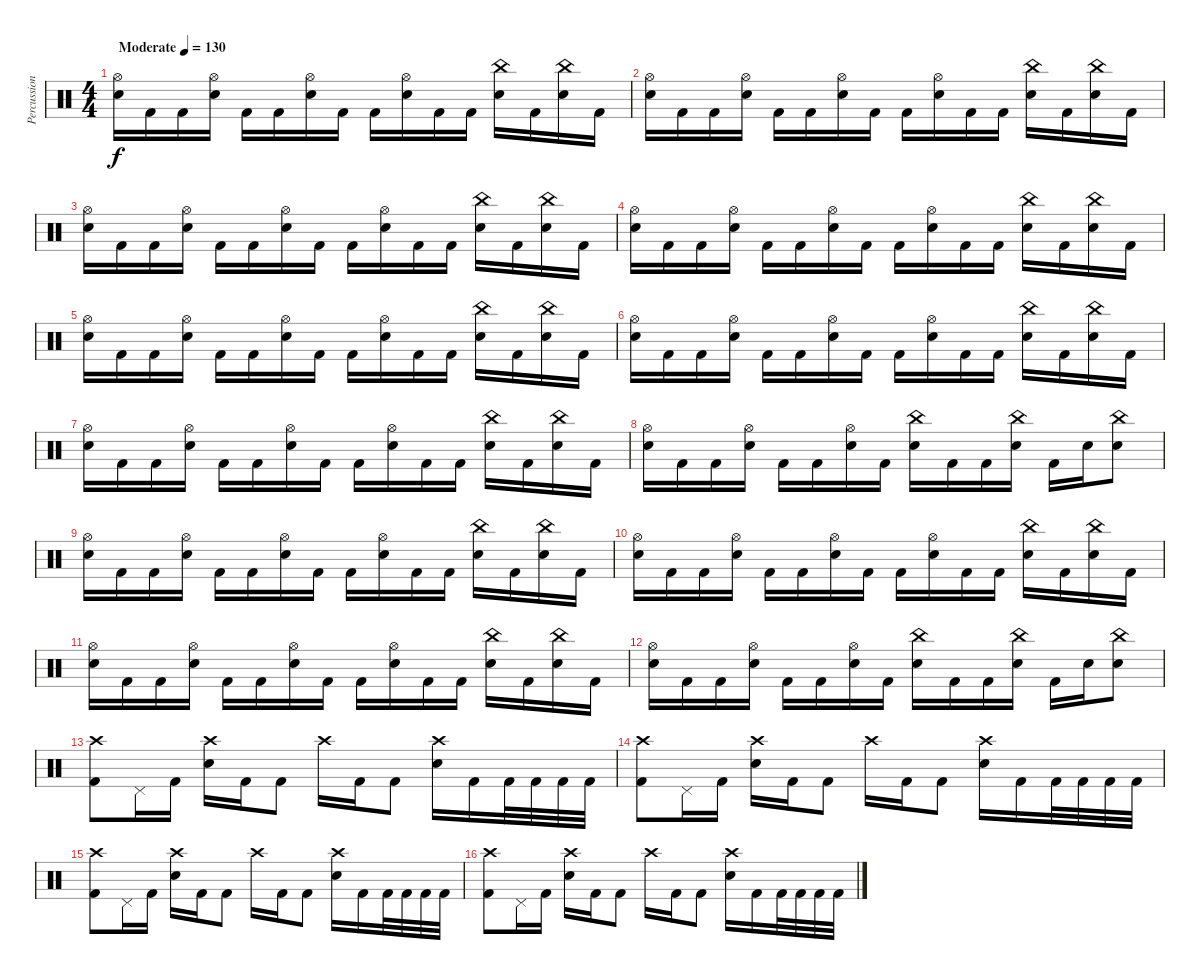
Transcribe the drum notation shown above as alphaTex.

\track ("Percussions" "Percussion") {instrument percussion}
\staff {score}
\articulation defaults
\ts (4 4)
\tempo (130 "Moderate")
\clef neutral
\ks c
("Hi-Hat (open)" "Electric Snare (hit)").16{dy f} "Kick (hit) 2".16 "Kick (hit) 2".16 ("Hi-Hat (open)" "Electric Snare (hit)").16 "Kick (hit) 2".16 "Kick (hit) 2".16 ("Hi-Hat (open)" "Electric Snare (hit)").16 "Kick (hit) 2".16 "Kick (hit) 2".16 ("Hi-Hat (open)" "Electric Snare (hit)").16 "Kick (hit) 2".16 "Kick (hit) 2".16 ("China (hit)" "Electric Snare (hit)").16 "Kick (hit) 2".16 ("China (hit)" "Electric Snare (hit)").16 "Kick (hit) 2".16 |
("Hi-Hat (open)" "Electric Snare (hit)").16 "Kick (hit) 2".16 "Kick (hit) 2".16 ("Hi-Hat (open)" "Electric Snare (hit)").16 "Kick (hit) 2".16 "Kick (hit) 2".16 ("Hi-Hat (open)" "Electric Snare (hit)").16 "Kick (hit) 2".16 "Kick (hit) 2".16 ("Hi-Hat (open)" "Electric Snare (hit)").16 "Kick (hit) 2".16 "Kick (hit) 2".16 ("China (hit)" "Electric Snare (hit)").16 "Kick (hit) 2".16 ("China (hit)" "Electric Snare (hit)").16 "Kick (hit) 2".16 |
("Hi-Hat (open)" "Electric Snare (hit)").16 "Kick (hit) 2".16 "Kick (hit) 2".16 ("Hi-Hat (open)" "Electric Snare (hit)").16 "Kick (hit) 2".16 "Kick (hit) 2".16 ("Hi-Hat (open)" "Electric Snare (hit)").16 "Kick (hit) 2".16 "Kick (hit) 2".16 ("Hi-Hat (open)" "Electric Snare (hit)").16 "Kick (hit) 2".16 "Kick (hit) 2".16 ("China (hit)" "Electric Snare (hit)").16 "Kick (hit) 2".16 ("China (hit)" "Electric Snare (hit)").16 "Kick (hit) 2".16 |
("Hi-Hat (open)" "Electric Snare (hit)").16 "Kick (hit) 2".16 "Kick (hit) 2".16 ("Hi-Hat (open)" "Electric Snare (hit)").16 "Kick (hit) 2".16 "Kick (hit) 2".16 ("Hi-Hat (open)" "Electric Snare (hit)").16 "Kick (hit) 2".16 "Kick (hit) 2".16 ("Hi-Hat (open)" "Electric Snare (hit)").16 "Kick (hit) 2".16 "Kick (hit) 2".16 ("China (hit)" "Electric Snare (hit)").16 "Kick (hit) 2".16 ("China (hit)" "Electric Snare (hit)").16 "Kick (hit) 2".16 |
("Hi-Hat (open)" "Electric Snare (hit)").16 "Kick (hit) 2".16 "Kick (hit) 2".16 ("Hi-Hat (open)" "Electric Snare (hit)").16 "Kick (hit) 2".16 "Kick (hit) 2".16 ("Hi-Hat (open)" "Electric Snare (hit)").16 "Kick (hit) 2".16 "Kick (hit) 2".16 ("Hi-Hat (open)" "Electric Snare (hit)").16 "Kick (hit) 2".16 "Kick (hit) 2".16 ("China (hit)" "Electric Snare (hit)").16 "Kick (hit) 2".16 ("China (hit)" "Electric Snare (hit)").16 "Kick (hit) 2".16 |
("Hi-Hat (open)" "Electric Snare (hit)").16 "Kick (hit) 2".16 "Kick (hit) 2".16 ("Hi-Hat (open)" "Electric Snare (hit)").16 "Kick (hit) 2".16 "Kick (hit) 2".16 ("Hi-Hat (open)" "Electric Snare (hit)").16 "Kick (hit) 2".16 "Kick (hit) 2".16 ("Hi-Hat (open)" "Electric Snare (hit)").16 "Kick (hit) 2".16 "Kick (hit) 2".16 ("China (hit)" "Electric Snare (hit)").16 "Kick (hit) 2".16 ("China (hit)" "Electric Snare (hit)").16 "Kick (hit) 2".16 |
("Hi-Hat (open)" "Electric Snare (hit)").16 "Kick (hit) 2".16 "Kick (hit) 2".16 ("Hi-Hat (open)" "Electric Snare (hit)").16 "Kick (hit) 2".16 "Kick (hit) 2".16 ("Hi-Hat (open)" "Electric Snare (hit)").16 "Kick (hit) 2".16 "Kick (hit) 2".16 ("Hi-Hat (open)" "Electric Snare (hit)").16 "Kick (hit) 2".16 "Kick (hit) 2".16 ("China (hit)" "Electric Snare (hit)").16 "Kick (hit) 2".16 ("China (hit)" "Electric Snare (hit)").16 "Kick (hit) 2".16 |
("Hi-Hat (open)" "Electric Snare (hit)").16 "Kick (hit) 2".16 "Kick (hit) 2".16 ("Hi-Hat (open)" "Electric Snare (hit)").16 "Kick (hit) 2".16 "Kick (hit) 2".16 ("Hi-Hat (open)" "Electric Snare (hit)").16 "Kick (hit) 2".16 ("China (hit)" "Electric Snare (hit)").16 "Kick (hit) 2".16 "Kick (hit) 2".16 ("China (hit)" "Electric Snare (hit)").16 "Kick (hit) 2".16 "Electric Snare (hit)".16 ("China (hit)" "Electric Snare (hit)").8 |
("Hi-Hat (open)" "Electric Snare (hit)").16 "Kick (hit) 2".16 "Kick (hit) 2".16 ("Hi-Hat (open)" "Electric Snare (hit)").16 "Kick (hit) 2".16 "Kick (hit) 2".16 ("Hi-Hat (open)" "Electric Snare (hit)").16 "Kick (hit) 2".16 "Kick (hit) 2".16 ("Hi-Hat (open)" "Electric Snare (hit)").16 "Kick (hit) 2".16 "Kick (hit) 2".16 ("China (hit)" "Electric Snare (hit)").16 "Kick (hit) 2".16 ("China (hit)" "Electric Snare (hit)").16 "Kick (hit) 2".16 |
("Hi-Hat (open)" "Electric Snare (hit)").16 "Kick (hit) 2".16 "Kick (hit) 2".16 ("Hi-Hat (open)" "Electric Snare (hit)").16 "Kick (hit) 2".16 "Kick (hit) 2".16 ("Hi-Hat (open)" "Electric Snare (hit)").16 "Kick (hit) 2".16 "Kick (hit) 2".16 ("Hi-Hat (open)" "Electric Snare (hit)").16 "Kick (hit) 2".16 "Kick (hit) 2".16 ("China (hit)" "Electric Snare (hit)").16 "Kick (hit) 2".16 ("China (hit)" "Electric Snare (hit)").16 "Kick (hit) 2".16 |
("Hi-Hat (open)" "Electric Snare (hit)").16 "Kick (hit) 2".16 "Kick (hit) 2".16 ("Hi-Hat (open)" "Electric Snare (hit)").16 "Kick (hit) 2".16 "Kick (hit) 2".16 ("Hi-Hat (open)" "Electric Snare (hit)").16 "Kick (hit) 2".16 "Kick (hit) 2".16 ("Hi-Hat (open)" "Electric Snare (hit)").16 "Kick (hit) 2".16 "Kick (hit) 2".16 ("China (hit)" "Electric Snare (hit)").16 "Kick (hit) 2".16 ("China (hit)" "Electric Snare (hit)").16 "Kick (hit) 2".16 |
("Hi-Hat (open)" "Electric Snare (hit)").16 "Kick (hit) 2".16 "Kick (hit) 2".16 ("Hi-Hat (open)" "Electric Snare (hit)").16 "Kick (hit) 2".16 "Kick (hit) 2".16 ("Hi-Hat (open)" "Electric Snare (hit)").16 "Kick (hit) 2".16 ("China (hit)" "Electric Snare (hit)").16 "Kick (hit) 2".16 "Kick (hit) 2".16 ("China (hit)" "Electric Snare (hit)").16 "Kick (hit) 2".16 "Electric Snare (hit)".16 ("China (hit)" "Electric Snare (hit)").8 |
("Crash high (hit)" "Kick (hit) 2").8 "Pedal Hi-Hat (hit)".16 "Kick (hit) 2".16 ("Crash high (hit)" "Electric Snare (hit)").16 "Kick (hit) 2".16 "Kick (hit) 2".8 "Crash high (hit)".16 "Kick (hit) 2".16 "Kick (hit) 2".8 ("Crash high (hit)" "Electric Snare (hit)").16 "Kick (hit) 2".16 "Kick (hit) 2".32 "Kick (hit) 2".32 "Kick (hit) 2".32 "Kick (hit) 2".32 |
("Crash high (hit)" "Kick (hit) 2").8 "Pedal Hi-Hat (hit)".16 "Kick (hit) 2".16 ("Crash high (hit)" "Electric Snare (hit)").16 "Kick (hit) 2".16 "Kick (hit) 2".8 "Crash high (hit)".16 "Kick (hit) 2".16 "Kick (hit) 2".8 ("Crash high (hit)" "Electric Snare (hit)").16 "Kick (hit) 2".16 "Kick (hit) 2".32 "Kick (hit) 2".32 "Kick (hit) 2".32 "Kick (hit) 2".32 |
("Crash high (hit)" "Kick (hit) 2").8 "Pedal Hi-Hat (hit)".16 "Kick (hit) 2".16 ("Crash high (hit)" "Electric Snare (hit)").16 "Kick (hit) 2".16 "Kick (hit) 2".8 "Crash high (hit)".16 "Kick (hit) 2".16 "Kick (hit) 2".8 ("Crash high (hit)" "Electric Snare (hit)").16 "Kick (hit) 2".16 "Kick (hit) 2".32 "Kick (hit) 2".32 "Kick (hit) 2".32 "Kick (hit) 2".32 |
("Crash high (hit)" "Kick (hit) 2").8 "Pedal Hi-Hat (hit)".16 "Kick (hit) 2".16 ("Crash high (hit)" "Electric Snare (hit)").16 "Kick (hit) 2".16 "Kick (hit) 2".8 "Crash high (hit)".16 "Kick (hit) 2".16 "Kick (hit) 2".8 ("Crash high (hit)" "Electric Snare (hit)").16 "Kick (hit) 2".16 "Kick (hit) 2".32 "Kick (hit) 2".32 "Kick (hit) 2".32 "Kick (hit) 2".32
